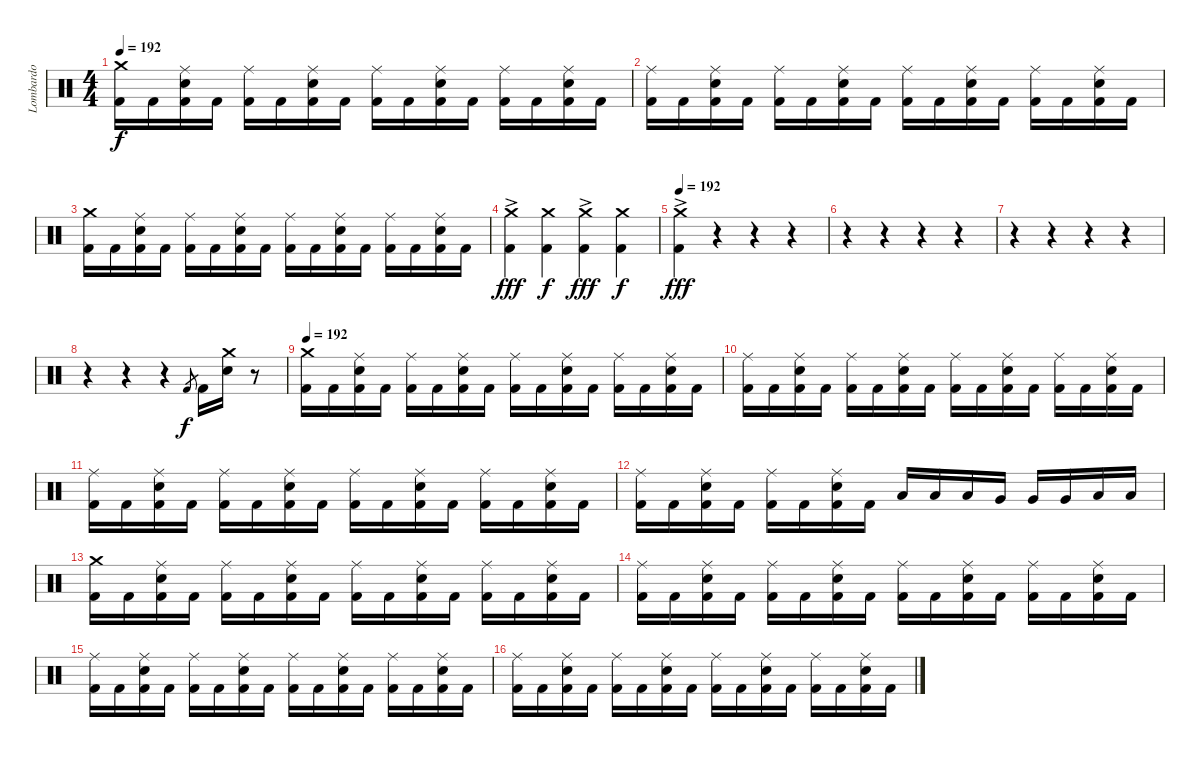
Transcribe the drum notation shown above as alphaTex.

\track ("Lombardo" "Lombardo") {instrument percussion}
\staff {score}
\articulation defaults
\ts (4 4)
\tempo 192
\clef neutral
\ks c
("Crash medium (hit)" "Kick (hit) 2").16{dy f} "Kick (hit) 2".16 ("Ride (middle)" "Snare (hit) 2" "Kick (hit) 2").16 "Kick (hit) 2".16 ("Ride (middle)" "Kick (hit) 2").16 "Kick (hit) 2".16 ("Ride (middle)" "Snare (hit) 2" "Kick (hit) 2").16 "Kick (hit) 2".16 ("Ride (middle)" "Kick (hit) 2").16 "Kick (hit) 2".16 ("Ride (middle)" "Snare (hit) 2" "Kick (hit) 2").16 "Kick (hit) 2".16 ("Ride (middle)" "Kick (hit) 2").16 "Kick (hit) 2".16 ("Ride (middle)" "Snare (hit) 2" "Kick (hit) 2").16 "Kick (hit) 2".16 |
("Ride (middle)" "Kick (hit) 2").16 "Kick (hit) 2".16 ("Ride (middle)" "Snare (hit) 2" "Kick (hit) 2").16 "Kick (hit) 2".16 ("Ride (middle)" "Kick (hit) 2").16 "Kick (hit) 2".16 ("Ride (middle)" "Snare (hit) 2" "Kick (hit) 2").16 "Kick (hit) 2".16 ("Ride (middle)" "Kick (hit) 2").16 "Kick (hit) 2".16 ("Ride (middle)" "Snare (hit) 2" "Kick (hit) 2").16 "Kick (hit) 2".16 ("Ride (middle)" "Kick (hit) 2").16 "Kick (hit) 2".16 ("Ride (middle)" "Snare (hit) 2" "Kick (hit) 2").16 "Kick (hit) 2".16 |
("Crash medium (hit)" "Kick (hit) 2").16 "Kick (hit) 2".16 ("Ride (middle)" "Snare (hit) 2" "Kick (hit) 2").16 "Kick (hit) 2".16 ("Ride (middle)" "Kick (hit) 2").16 "Kick (hit) 2".16 ("Ride (middle)" "Snare (hit) 2" "Kick (hit) 2").16 "Kick (hit) 2".16 ("Ride (middle)" "Kick (hit) 2").16 "Kick (hit) 2".16 ("Ride (middle)" "Snare (hit) 2" "Kick (hit) 2").16 "Kick (hit) 2".16 ("Ride (middle)" "Kick (hit) 2").16 "Kick (hit) 2".16 ("Ride (middle)" "Snare (hit) 2" "Kick (hit) 2").16 "Kick (hit) 2".16 |
("Crash medium (hit)"{ac} "Kick (hit) 2").4{dy fff} ("Crash medium (hit)" "Kick (hit) 2").4{dy f} ("Crash medium (hit)"{ac} "Kick (hit) 2").4{dy fff} ("Crash medium (hit)" "Kick (hit) 2").4{dy f} |
\tempo 192
("Crash medium (hit)"{ac} "Kick (hit) 2").4{dy fff} r.4 r.4 r.4 |
r.4 r.4 r.4 r.4 |
r.4 r.4 r.4 r.4 |
r.4 r.4 r.4 "Kick (hit) 2".8{gr dy f} "Kick (hit) 2".16 ("Crash medium (hit)" "Snare (hit) 2").16 r.8 |
\tempo 192
("Crash medium (hit)" "Kick (hit) 2").16 "Kick (hit) 2".16 ("Ride (middle)" "Snare (hit) 2" "Kick (hit) 2").16 "Kick (hit) 2".16 ("Ride (middle)" "Kick (hit) 2").16 "Kick (hit) 2".16 ("Ride (middle)" "Snare (hit) 2" "Kick (hit) 2").16 "Kick (hit) 2".16 ("Ride (middle)" "Kick (hit) 2").16 "Kick (hit) 2".16 ("Ride (middle)" "Snare (hit) 2" "Kick (hit) 2").16 "Kick (hit) 2".16 ("Ride (middle)" "Kick (hit) 2").16 "Kick (hit) 2".16 ("Ride (middle)" "Snare (hit) 2" "Kick (hit) 2").16 "Kick (hit) 2".16 |
("Ride (middle)" "Kick (hit) 2").16 "Kick (hit) 2".16 ("Ride (middle)" "Snare (hit) 2" "Kick (hit) 2").16 "Kick (hit) 2".16 ("Ride (middle)" "Kick (hit) 2").16 "Kick (hit) 2".16 ("Ride (middle)" "Snare (hit) 2" "Kick (hit) 2").16 "Kick (hit) 2".16 ("Ride (middle)" "Kick (hit) 2").16 "Kick (hit) 2".16 ("Ride (middle)" "Snare (hit) 2" "Kick (hit) 2").16 "Kick (hit) 2".16 ("Ride (middle)" "Kick (hit) 2").16 "Kick (hit) 2".16 ("Ride (middle)" "Snare (hit) 2" "Kick (hit) 2").16 "Kick (hit) 2".16 |
("Ride (middle)" "Kick (hit) 2").16 "Kick (hit) 2".16 ("Ride (middle)" "Snare (hit) 2" "Kick (hit) 2").16 "Kick (hit) 2".16 ("Ride (middle)" "Kick (hit) 2").16 "Kick (hit) 2".16 ("Ride (middle)" "Snare (hit) 2" "Kick (hit) 2").16 "Kick (hit) 2".16 ("Ride (middle)" "Kick (hit) 2").16 "Kick (hit) 2".16 ("Ride (middle)" "Snare (hit) 2" "Kick (hit) 2").16 "Kick (hit) 2".16 ("Ride (middle)" "Kick (hit) 2").16 "Kick (hit) 2".16 ("Ride (middle)" "Snare (hit) 2" "Kick (hit) 2").16 "Kick (hit) 2".16 |
("Ride (middle)" "Kick (hit) 2").16 "Kick (hit) 2".16 ("Ride (middle)" "Snare (hit) 2" "Kick (hit) 2").16 "Kick (hit) 2".16 ("Ride (middle)" "Kick (hit) 2").16 "Kick (hit) 2".16 ("Ride (middle)" "Snare (hit) 2" "Kick (hit) 2").16 "Kick (hit) 2".16 "Low Tom (hit)".16 "Low Tom (hit)".16 "Low Tom (hit)".16 "Very Low Tom (hit)".16 "Very Low Tom (hit)".16 "Very Low Tom (hit)".16 "Low Floor Tom (hit)".16 "Low Floor Tom (hit)".16 |
("Crash medium (hit)" "Kick (hit) 2").16 "Kick (hit) 2".16 ("Ride (middle)" "Snare (hit) 2" "Kick (hit) 2").16 "Kick (hit) 2".16 ("Ride (middle)" "Kick (hit) 2").16 "Kick (hit) 2".16 ("Ride (middle)" "Snare (hit) 2" "Kick (hit) 2").16 "Kick (hit) 2".16 ("Ride (middle)" "Kick (hit) 2").16 "Kick (hit) 2".16 ("Ride (middle)" "Snare (hit) 2" "Kick (hit) 2").16 "Kick (hit) 2".16 ("Ride (middle)" "Kick (hit) 2").16 "Kick (hit) 2".16 ("Ride (middle)" "Snare (hit) 2" "Kick (hit) 2").16 "Kick (hit) 2".16 |
("Ride (middle)" "Kick (hit) 2").16 "Kick (hit) 2".16 ("Ride (middle)" "Snare (hit) 2" "Kick (hit) 2").16 "Kick (hit) 2".16 ("Ride (middle)" "Kick (hit) 2").16 "Kick (hit) 2".16 ("Ride (middle)" "Snare (hit) 2" "Kick (hit) 2").16 "Kick (hit) 2".16 ("Ride (middle)" "Kick (hit) 2").16 "Kick (hit) 2".16 ("Ride (middle)" "Snare (hit) 2" "Kick (hit) 2").16 "Kick (hit) 2".16 ("Ride (middle)" "Kick (hit) 2").16 "Kick (hit) 2".16 ("Ride (middle)" "Snare (hit) 2" "Kick (hit) 2").16 "Kick (hit) 2".16 |
("Ride (middle)" "Kick (hit) 2").16 "Kick (hit) 2".16 ("Ride (middle)" "Snare (hit) 2" "Kick (hit) 2").16 "Kick (hit) 2".16 ("Ride (middle)" "Kick (hit) 2").16 "Kick (hit) 2".16 ("Ride (middle)" "Snare (hit) 2" "Kick (hit) 2").16 "Kick (hit) 2".16 ("Ride (middle)" "Kick (hit) 2").16 "Kick (hit) 2".16 ("Ride (middle)" "Snare (hit) 2" "Kick (hit) 2").16 "Kick (hit) 2".16 ("Ride (middle)" "Kick (hit) 2").16 "Kick (hit) 2".16 ("Ride (middle)" "Snare (hit) 2" "Kick (hit) 2").16 "Kick (hit) 2".16 |
("Ride (middle)" "Kick (hit) 2").16 "Kick (hit) 2".16 ("Ride (middle)" "Snare (hit) 2" "Kick (hit) 2").16 "Kick (hit) 2".16 ("Ride (middle)" "Kick (hit) 2").16 "Kick (hit) 2".16 ("Ride (middle)" "Snare (hit) 2" "Kick (hit) 2").16 "Kick (hit) 2".16 ("Ride (middle)" "Kick (hit) 2").16 "Kick (hit) 2".16 ("Ride (middle)" "Snare (hit) 2" "Kick (hit) 2").16 "Kick (hit) 2".16 ("Ride (middle)" "Kick (hit) 2").16 "Kick (hit) 2".16 ("Ride (middle)" "Snare (hit) 2" "Kick (hit) 2").16 "Kick (hit) 2".16
